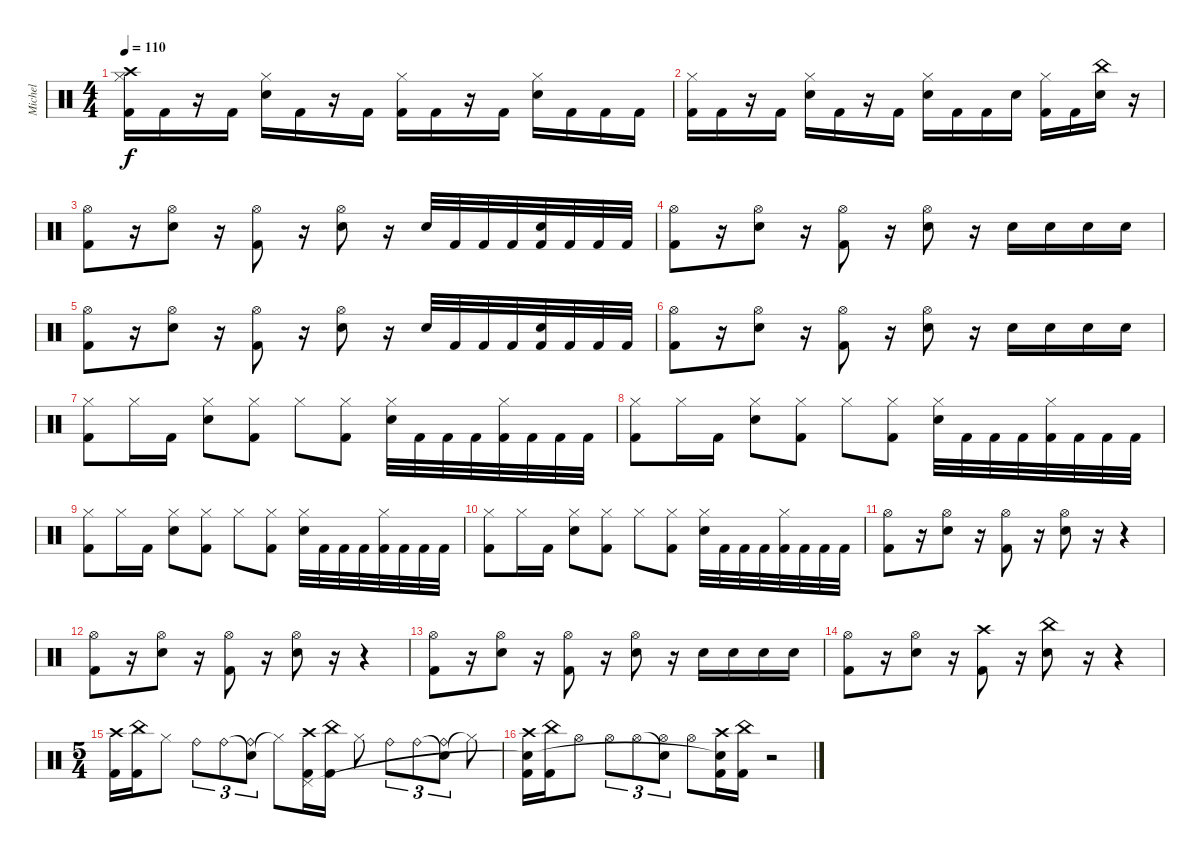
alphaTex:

\track ("Michel" "Michel") {instrument percussion}
\staff {score}
\articulation defaults
\ts (4 4)
\tempo 110
\clef neutral
\ks c
("Crash high (hit)" "Kick (hit) 2" "Hi-Hat (closed)").16{dy f} "Kick (hit) 2".16 r.16 "Kick (hit) 2".16 ("Snare (hit) 2" "Hi-Hat (closed)").16 "Kick (hit) 2".16 r.16 "Kick (hit) 2".16 ("Kick (hit) 2" "Hi-Hat (closed)").16 "Kick (hit) 2".16 r.16 "Kick (hit) 2".16 ("Snare (hit) 2" "Hi-Hat (closed)").16 "Kick (hit) 2".16 "Kick (hit) 2".16 "Kick (hit) 2".16 |
("Kick (hit) 2" "Hi-Hat (closed)").16 "Kick (hit) 2".16 r.16 "Kick (hit) 2".16 ("Snare (hit) 2" "Hi-Hat (closed)").16 "Kick (hit) 2".16 r.16 "Kick (hit) 2".16 ("Snare (hit) 2" "Hi-Hat (closed)").16 "Kick (hit) 2".16 "Kick (hit) 2".16 "Snare (hit) 2".16 ("Kick (hit) 2" "Hi-Hat (closed)").16 "Kick (hit) 2".16 ("China (hit)" "Snare (hit) 2").16 r.16 |
("Kick (hit) 2" "Hi-Hat (open)").8 r.16 ("Snare (hit) 2" "Hi-Hat (open)").8 r.16 ("Kick (hit) 2" "Hi-Hat (open)").8 r.16 ("Snare (hit) 2" "Hi-Hat (open)").8 r.16 "Snare (hit) 2".32 "Kick (hit) 2".32 "Kick (hit) 2".32 "Kick (hit) 2".32 ("Snare (hit) 2" "Kick (hit) 2").32 "Kick (hit) 2".32 "Kick (hit) 2".32 "Kick (hit) 2".32 |
("Kick (hit) 2" "Hi-Hat (open)").8 r.16 ("Snare (hit) 2" "Hi-Hat (open)").8 r.16 ("Kick (hit) 2" "Hi-Hat (open)").8 r.16 ("Snare (hit) 2" "Hi-Hat (open)").8 r.16 "Snare (hit) 2".16 "Snare (hit) 2".16 "Snare (hit) 2".16 "Snare (hit) 2".16 |
("Kick (hit) 2" "Hi-Hat (open)").8 r.16 ("Snare (hit) 2" "Hi-Hat (open)").8 r.16 ("Kick (hit) 2" "Hi-Hat (open)").8 r.16 ("Snare (hit) 2" "Hi-Hat (open)").8 r.16 "Snare (hit) 2".32 "Kick (hit) 2".32 "Kick (hit) 2".32 "Kick (hit) 2".32 ("Snare (hit) 2" "Kick (hit) 2").32 "Kick (hit) 2".32 "Kick (hit) 2".32 "Kick (hit) 2".32 |
("Kick (hit) 2" "Hi-Hat (open)").8 r.16 ("Snare (hit) 2" "Hi-Hat (open)").8 r.16 ("Kick (hit) 2" "Hi-Hat (open)").8 r.16 ("Snare (hit) 2" "Hi-Hat (open)").8 r.16 "Snare (hit) 2".16 "Snare (hit) 2".16 "Snare (hit) 2".16 "Snare (hit) 2".16 |
("Kick (hit) 2" "Hi-Hat (closed)").8 "Hi-Hat (closed)".16 "Kick (hit) 2".16 ("Snare (hit) 2" "Hi-Hat (closed)").8 ("Kick (hit) 2" "Hi-Hat (closed)").8 "Hi-Hat (closed)".8 ("Kick (hit) 2" "Hi-Hat (closed)").8 ("Snare (hit) 2" "Hi-Hat (closed)").32 "Kick (hit) 2".32 "Kick (hit) 2".32 "Kick (hit) 2".32 ("Kick (hit) 2" "Hi-Hat (closed)").32 "Kick (hit) 2".32 "Kick (hit) 2".32 "Kick (hit) 2".32 |
("Kick (hit) 2" "Hi-Hat (closed)").8 "Hi-Hat (closed)".16 "Kick (hit) 2".16 ("Snare (hit) 2" "Hi-Hat (closed)").8 ("Kick (hit) 2" "Hi-Hat (closed)").8 "Hi-Hat (closed)".8 ("Kick (hit) 2" "Hi-Hat (closed)").8 ("Snare (hit) 2" "Hi-Hat (closed)").32 "Kick (hit) 2".32 "Kick (hit) 2".32 "Kick (hit) 2".32 ("Kick (hit) 2" "Hi-Hat (closed)").32 "Kick (hit) 2".32 "Kick (hit) 2".32 "Kick (hit) 2".32 |
("Kick (hit) 2" "Hi-Hat (closed)").8 "Hi-Hat (closed)".16 "Kick (hit) 2".16 ("Snare (hit) 2" "Hi-Hat (closed)").8 ("Kick (hit) 2" "Hi-Hat (closed)").8 "Hi-Hat (closed)".8 ("Kick (hit) 2" "Hi-Hat (closed)").8 ("Snare (hit) 2" "Hi-Hat (closed)").32 "Kick (hit) 2".32 "Kick (hit) 2".32 "Kick (hit) 2".32 ("Kick (hit) 2" "Hi-Hat (closed)").32 "Kick (hit) 2".32 "Kick (hit) 2".32 "Kick (hit) 2".32 |
("Kick (hit) 2" "Hi-Hat (closed)").8 "Hi-Hat (closed)".16 "Kick (hit) 2".16 ("Snare (hit) 2" "Hi-Hat (closed)").8 ("Kick (hit) 2" "Hi-Hat (closed)").8 "Hi-Hat (closed)".8 ("Kick (hit) 2" "Hi-Hat (closed)").8 ("Snare (hit) 2" "Hi-Hat (closed)").32 "Kick (hit) 2".32 "Kick (hit) 2".32 "Kick (hit) 2".32 ("Kick (hit) 2" "Hi-Hat (closed)").32 "Kick (hit) 2".32 "Kick (hit) 2".32 "Kick (hit) 2".32 |
("Kick (hit) 2" "Hi-Hat (open)").8 r.16 ("Snare (hit) 2" "Hi-Hat (open)").8 r.16 ("Kick (hit) 2" "Hi-Hat (open)").8 r.16 ("Snare (hit) 2" "Hi-Hat (open)").8 r.16 r.4 |
("Kick (hit) 2" "Hi-Hat (open)").8 r.16 ("Snare (hit) 2" "Hi-Hat (open)").8 r.16 ("Kick (hit) 2" "Hi-Hat (open)").8 r.16 ("Snare (hit) 2" "Hi-Hat (open)").8 r.16 r.4 |
("Kick (hit) 2" "Hi-Hat (open)").8 r.16 ("Snare (hit) 2" "Hi-Hat (open)").8 r.16 ("Kick (hit) 2" "Hi-Hat (open)").8 r.16 ("Snare (hit) 2" "Hi-Hat (open)").8 r.16 "Snare (hit) 2".16 "Snare (hit) 2".16 "Snare (hit) 2".16 "Snare (hit) 2".16 |
("Kick (hit) 2" "Hi-Hat (open)").8 r.16 ("Snare (hit) 2" "Hi-Hat (open)").8 r.16 ("Crash high (hit)" "Kick (hit) 2").8 r.16 ("China (hit)" "Snare (hit) 2").8 r.16 r.4 |
\ts (5 4)
("Crash high (hit)" "Kick (hit) 2").16 ("China (hit)" "Kick (hit) 2").16 "Hi-Hat (closed)".8 "Ride (bell)".8{tu (3 2)} "Ride (bell)".8{tu (3 2)} ("Snare (hit)"{t} "Ride (bell)").8{tu (3 2)} "Hi-Hat (closed)"{t}.8 ("Crash high (hit)" "Kick (hit) 2" "Pedal Hi-Hat (hit)").16 ("China (hit)" "Kick (hit) 2").16 "Hi-Hat (closed)".8 "Ride (bell)".8{tu (3 2)} "Ride (bell)".8{tu (3 2)} ("Snare (hit)"{t} "Ride (bell)").8{tu (3 2)} "Hi-Hat (closed)"{t}.8 |
("Crash high (hit)" "Kick (hit) 2" "Snare (hit)"{t}).16 ("China (hit)" "Kick (hit) 2").16 "Hi-Hat (open)".8 "Hi-Hat (open)".8{tu (3 2)} "Hi-Hat (open)".8{tu (3 2)} ("Snare (hit)"{t} "Hi-Hat (open)").8{tu (3 2)} "Hi-Hat (open)".8 ("Crash high (hit)" "Kick (hit) 2" "Snare (hit)"{t}).16 ("China (hit)" "Kick (hit) 2").16 r.2
